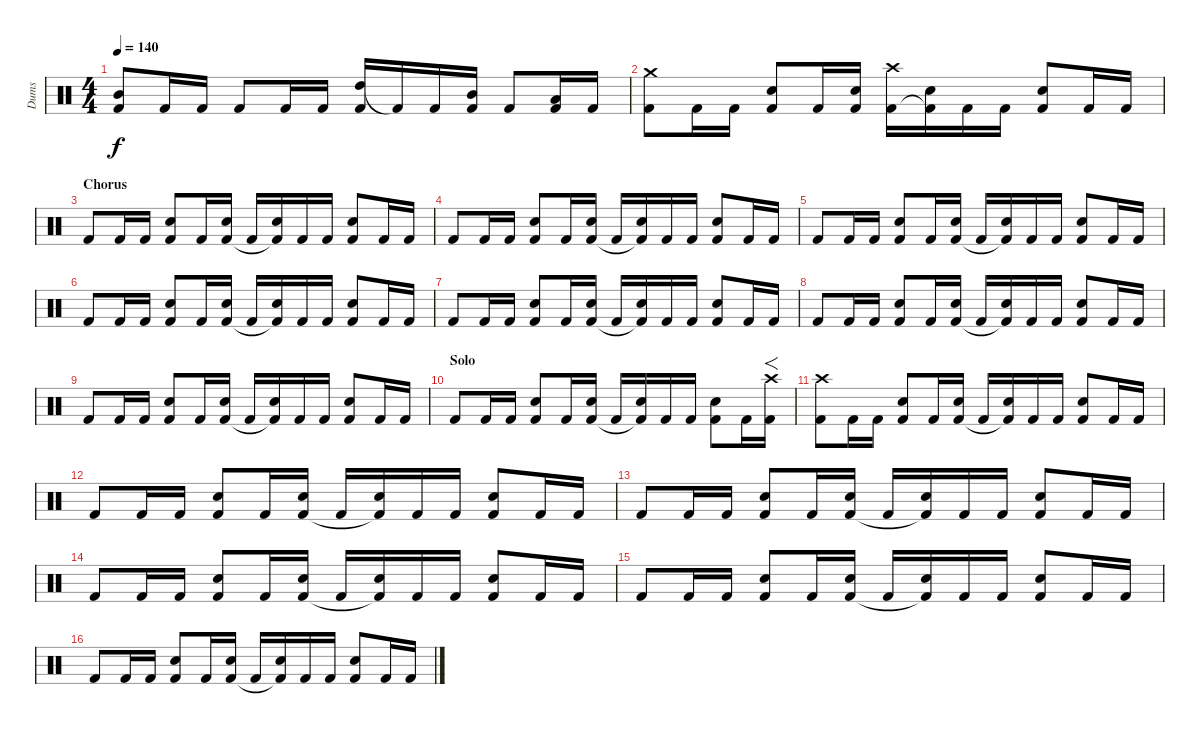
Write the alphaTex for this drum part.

\track ("Dums" "Dums") {instrument percussion}
\staff {score}
\articulation defaults
\ts (4 4)
\tempo 140
\clef neutral
\ks c
("Mid Tom (hit)" "Kick (hit) 2").8{dy f} "Kick (hit) 2".16 "Kick (hit) 2".16 "Kick (hit) 2".8 "Kick (hit) 2".16 "Kick (hit) 2".16 ("High Tom (hit)" "Kick (hit) 2").16 "Kick (hit) 2"{t}.16 "Kick (hit) 2".16 ("Mid Tom (hit)" "Kick (hit) 2").16 "Kick (hit) 2".8 ("Low Tom (hit)" "Kick (hit) 2").16 "Kick (hit) 2".16 |
("Crash medium (hit)" "Kick (hit) 2").8 "Kick (hit) 2".16 "Kick (hit) 2".16 ("Snare (hit) 2" "Kick (hit) 2").8 "Kick (hit) 2".16 ("Snare (hit) 2" "Kick (hit) 2").16 ("Crash high (hit)" "Kick (hit) 2").16 ("Snare (hit) 2" "Kick (hit) 2"{t}).16 "Kick (hit) 2".16 "Kick (hit) 2".16 ("Snare (hit) 2" "Kick (hit) 2").8 "Kick (hit) 2".16 "Kick (hit) 2".16 |
\section ("" "Chorus")
"Kick (hit) 2".8 "Kick (hit) 2".16 "Kick (hit) 2".16 ("Snare (hit) 2" "Kick (hit) 2").8 "Kick (hit) 2".16 ("Snare (hit) 2" "Kick (hit) 2").16 "Kick (hit) 2".16 ("Snare (hit) 2" "Kick (hit) 2"{t}).16 "Kick (hit) 2".16 "Kick (hit) 2".16 ("Snare (hit) 2" "Kick (hit) 2").8 "Kick (hit) 2".16 "Kick (hit) 2".16 |
"Kick (hit) 2".8 "Kick (hit) 2".16 "Kick (hit) 2".16 ("Snare (hit) 2" "Kick (hit) 2").8 "Kick (hit) 2".16 ("Snare (hit) 2" "Kick (hit) 2").16 "Kick (hit) 2".16 ("Snare (hit) 2" "Kick (hit) 2"{t}).16 "Kick (hit) 2".16 "Kick (hit) 2".16 ("Snare (hit) 2" "Kick (hit) 2").8 "Kick (hit) 2".16 "Kick (hit) 2".16 |
"Kick (hit) 2".8 "Kick (hit) 2".16 "Kick (hit) 2".16 ("Snare (hit) 2" "Kick (hit) 2").8 "Kick (hit) 2".16 ("Snare (hit) 2" "Kick (hit) 2").16 "Kick (hit) 2".16 ("Snare (hit) 2" "Kick (hit) 2"{t}).16 "Kick (hit) 2".16 "Kick (hit) 2".16 ("Snare (hit) 2" "Kick (hit) 2").8 "Kick (hit) 2".16 "Kick (hit) 2".16 |
"Kick (hit) 2".8 "Kick (hit) 2".16 "Kick (hit) 2".16 ("Snare (hit) 2" "Kick (hit) 2").8 "Kick (hit) 2".16 ("Snare (hit) 2" "Kick (hit) 2").16 "Kick (hit) 2".16 ("Snare (hit) 2" "Kick (hit) 2"{t}).16 "Kick (hit) 2".16 "Kick (hit) 2".16 ("Snare (hit) 2" "Kick (hit) 2").8 "Kick (hit) 2".16 "Kick (hit) 2".16 |
"Kick (hit) 2".8 "Kick (hit) 2".16 "Kick (hit) 2".16 ("Snare (hit) 2" "Kick (hit) 2").8 "Kick (hit) 2".16 ("Snare (hit) 2" "Kick (hit) 2").16 "Kick (hit) 2".16 ("Snare (hit) 2" "Kick (hit) 2"{t}).16 "Kick (hit) 2".16 "Kick (hit) 2".16 ("Snare (hit) 2" "Kick (hit) 2").8 "Kick (hit) 2".16 "Kick (hit) 2".16 |
"Kick (hit) 2".8 "Kick (hit) 2".16 "Kick (hit) 2".16 ("Snare (hit) 2" "Kick (hit) 2").8 "Kick (hit) 2".16 ("Snare (hit) 2" "Kick (hit) 2").16 "Kick (hit) 2".16 ("Snare (hit) 2" "Kick (hit) 2"{t}).16 "Kick (hit) 2".16 "Kick (hit) 2".16 ("Snare (hit) 2" "Kick (hit) 2").8 "Kick (hit) 2".16 "Kick (hit) 2".16 |
"Kick (hit) 2".8 "Kick (hit) 2".16 "Kick (hit) 2".16 ("Snare (hit) 2" "Kick (hit) 2").8 "Kick (hit) 2".16 ("Snare (hit) 2" "Kick (hit) 2").16 "Kick (hit) 2".16 ("Snare (hit) 2" "Kick (hit) 2"{t}).16 "Kick (hit) 2".16 "Kick (hit) 2".16 ("Snare (hit) 2" "Kick (hit) 2").8 "Kick (hit) 2".16 "Kick (hit) 2".16 |
\section ("" "Solo")
"Kick (hit) 2".8 "Kick (hit) 2".16 "Kick (hit) 2".16 ("Snare (hit) 2" "Kick (hit) 2").8 "Kick (hit) 2".16 ("Snare (hit) 2" "Kick (hit) 2").16 "Kick (hit) 2".16 ("Snare (hit) 2" "Kick (hit) 2"{t}).16 "Kick (hit) 2".16 "Kick (hit) 2".16 ("Snare (hit) 2" "Kick (hit) 2").8 "Kick (hit) 2".16 ("Crash high (hit)" "Kick (hit) 2").16{f} |
("Crash high (hit)" "Kick (hit) 2").8 "Kick (hit) 2".16 "Kick (hit) 2".16 ("Snare (hit) 2" "Kick (hit) 2").8 "Kick (hit) 2".16 ("Snare (hit) 2" "Kick (hit) 2").16 "Kick (hit) 2".16 ("Snare (hit) 2" "Kick (hit) 2"{t}).16 "Kick (hit) 2".16 "Kick (hit) 2".16 ("Snare (hit) 2" "Kick (hit) 2").8 "Kick (hit) 2".16 "Kick (hit) 2".16 |
"Kick (hit) 2".8 "Kick (hit) 2".16 "Kick (hit) 2".16 ("Snare (hit) 2" "Kick (hit) 2").8 "Kick (hit) 2".16 ("Snare (hit) 2" "Kick (hit) 2").16 "Kick (hit) 2".16 ("Snare (hit) 2" "Kick (hit) 2"{t}).16 "Kick (hit) 2".16 "Kick (hit) 2".16 ("Snare (hit) 2" "Kick (hit) 2").8 "Kick (hit) 2".16 "Kick (hit) 2".16 |
"Kick (hit) 2".8 "Kick (hit) 2".16 "Kick (hit) 2".16 ("Snare (hit) 2" "Kick (hit) 2").8 "Kick (hit) 2".16 ("Snare (hit) 2" "Kick (hit) 2").16 "Kick (hit) 2".16 ("Snare (hit) 2" "Kick (hit) 2"{t}).16 "Kick (hit) 2".16 "Kick (hit) 2".16 ("Snare (hit) 2" "Kick (hit) 2").8 "Kick (hit) 2".16 "Kick (hit) 2".16 |
"Kick (hit) 2".8 "Kick (hit) 2".16 "Kick (hit) 2".16 ("Snare (hit) 2" "Kick (hit) 2").8 "Kick (hit) 2".16 ("Snare (hit) 2" "Kick (hit) 2").16 "Kick (hit) 2".16 ("Snare (hit) 2" "Kick (hit) 2"{t}).16 "Kick (hit) 2".16 "Kick (hit) 2".16 ("Snare (hit) 2" "Kick (hit) 2").8 "Kick (hit) 2".16 "Kick (hit) 2".16 |
"Kick (hit) 2".8 "Kick (hit) 2".16 "Kick (hit) 2".16 ("Snare (hit) 2" "Kick (hit) 2").8 "Kick (hit) 2".16 ("Snare (hit) 2" "Kick (hit) 2").16 "Kick (hit) 2".16 ("Snare (hit) 2" "Kick (hit) 2"{t}).16 "Kick (hit) 2".16 "Kick (hit) 2".16 ("Snare (hit) 2" "Kick (hit) 2").8 "Kick (hit) 2".16 "Kick (hit) 2".16 |
"Kick (hit) 2".8 "Kick (hit) 2".16 "Kick (hit) 2".16 ("Snare (hit) 2" "Kick (hit) 2").8 "Kick (hit) 2".16 ("Snare (hit) 2" "Kick (hit) 2").16 "Kick (hit) 2".16 ("Snare (hit) 2" "Kick (hit) 2"{t}).16 "Kick (hit) 2".16 "Kick (hit) 2".16 ("Snare (hit) 2" "Kick (hit) 2").8 "Kick (hit) 2".16 "Kick (hit) 2".16
